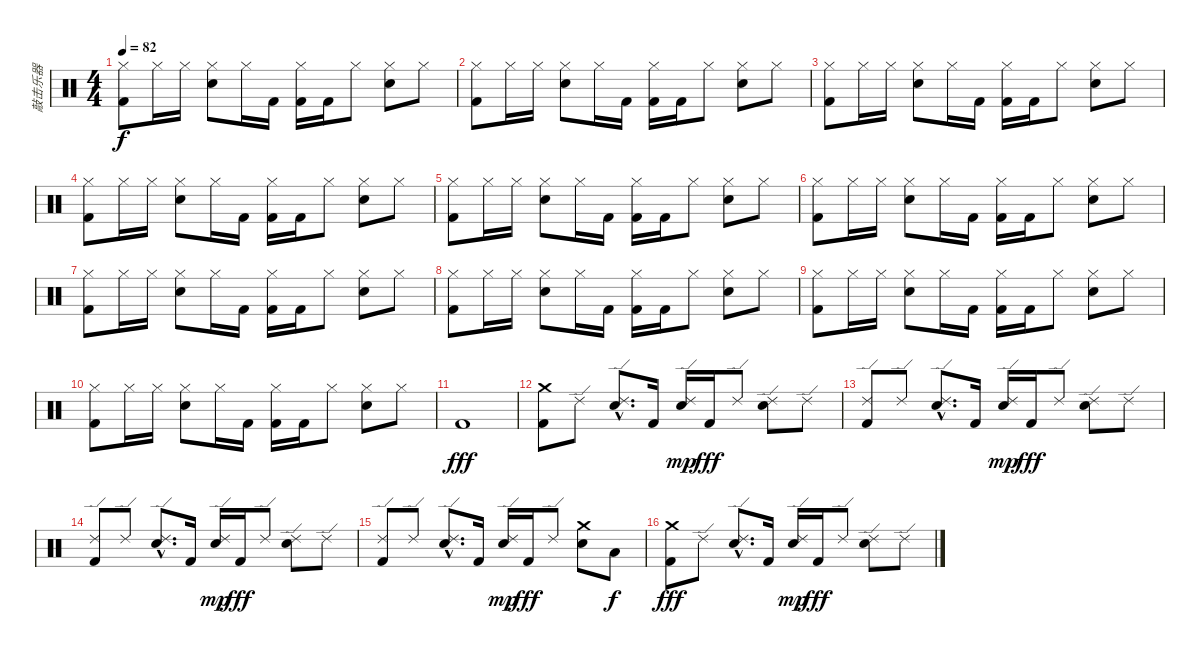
\track ("敲击乐器" "敲击乐器") {instrument percussion}
\staff {score}
\articulation defaults
\ts (4 4)
\tempo 82
\clef neutral
\ks c
("Hi-Hat (closed)" "Kick (hit) 2").8{dy f} "Hi-Hat (closed)".16 "Hi-Hat (closed)".16 ("Hi-Hat (closed)" "Snare (hit) 2").8 "Hi-Hat (closed)".16 "Kick (hit) 2".16 ("Hi-Hat (closed)" "Kick (hit) 2").16 "Kick (hit) 2".16 "Hi-Hat (closed)".8 ("Hi-Hat (closed)" "Snare (hit) 2").8 "Hi-Hat (closed)".8 |
("Hi-Hat (closed)" "Kick (hit) 2").8 "Hi-Hat (closed)".16 "Hi-Hat (closed)".16 ("Hi-Hat (closed)" "Snare (hit) 2").8 "Hi-Hat (closed)".16 "Kick (hit) 2".16 ("Hi-Hat (closed)" "Kick (hit) 2").16 "Kick (hit) 2".16 "Hi-Hat (closed)".8 ("Hi-Hat (closed)" "Snare (hit) 2").8 "Hi-Hat (closed)".8 |
("Hi-Hat (closed)" "Kick (hit) 2").8 "Hi-Hat (closed)".16 "Hi-Hat (closed)".16 ("Hi-Hat (closed)" "Snare (hit) 2").8 "Hi-Hat (closed)".16 "Kick (hit) 2".16 ("Hi-Hat (closed)" "Kick (hit) 2").16 "Kick (hit) 2".16 "Hi-Hat (closed)".8 ("Hi-Hat (closed)" "Snare (hit) 2").8 "Hi-Hat (closed)".8 |
("Hi-Hat (closed)" "Kick (hit) 2").8 "Hi-Hat (closed)".16 "Hi-Hat (closed)".16 ("Hi-Hat (closed)" "Snare (hit) 2").8 "Hi-Hat (closed)".16 "Kick (hit) 2".16 ("Hi-Hat (closed)" "Kick (hit) 2").16 "Kick (hit) 2".16 "Hi-Hat (closed)".8 ("Hi-Hat (closed)" "Snare (hit) 2").8 "Hi-Hat (closed)".8 |
("Hi-Hat (closed)" "Kick (hit) 2").8 "Hi-Hat (closed)".16 "Hi-Hat (closed)".16 ("Hi-Hat (closed)" "Snare (hit) 2").8 "Hi-Hat (closed)".16 "Kick (hit) 2".16 ("Hi-Hat (closed)" "Kick (hit) 2").16 "Kick (hit) 2".16 "Hi-Hat (closed)".8 ("Hi-Hat (closed)" "Snare (hit) 2").8 "Hi-Hat (closed)".8 |
("Hi-Hat (closed)" "Kick (hit) 2").8 "Hi-Hat (closed)".16 "Hi-Hat (closed)".16 ("Hi-Hat (closed)" "Snare (hit) 2").8 "Hi-Hat (closed)".16 "Kick (hit) 2".16 ("Hi-Hat (closed)" "Kick (hit) 2").16 "Kick (hit) 2".16 "Hi-Hat (closed)".8 ("Hi-Hat (closed)" "Snare (hit) 2").8 "Hi-Hat (closed)".8 |
("Hi-Hat (closed)" "Kick (hit) 2").8 "Hi-Hat (closed)".16 "Hi-Hat (closed)".16 ("Hi-Hat (closed)" "Snare (hit) 2").8 "Hi-Hat (closed)".16 "Kick (hit) 2".16 ("Hi-Hat (closed)" "Kick (hit) 2").16 "Kick (hit) 2".16 "Hi-Hat (closed)".8 ("Hi-Hat (closed)" "Snare (hit) 2").8 "Hi-Hat (closed)".8 |
("Hi-Hat (closed)" "Kick (hit) 2").8 "Hi-Hat (closed)".16 "Hi-Hat (closed)".16 ("Hi-Hat (closed)" "Snare (hit) 2").8 "Hi-Hat (closed)".16 "Kick (hit) 2".16 ("Hi-Hat (closed)" "Kick (hit) 2").16 "Kick (hit) 2".16 "Hi-Hat (closed)".8 ("Hi-Hat (closed)" "Snare (hit) 2").8 "Hi-Hat (closed)".8 |
("Hi-Hat (closed)" "Kick (hit) 2").8 "Hi-Hat (closed)".16 "Hi-Hat (closed)".16 ("Hi-Hat (closed)" "Snare (hit) 2").8 "Hi-Hat (closed)".16 "Kick (hit) 2".16 ("Hi-Hat (closed)" "Kick (hit) 2").16 "Kick (hit) 2".16 "Hi-Hat (closed)".8 ("Hi-Hat (closed)" "Snare (hit) 2").8 "Hi-Hat (closed)".8 |
("Hi-Hat (closed)" "Kick (hit) 2").8 "Hi-Hat (closed)".16 "Hi-Hat (closed)".16 ("Hi-Hat (closed)" "Snare (hit) 2").8 "Hi-Hat (closed)".16 "Kick (hit) 2".16 ("Hi-Hat (closed)" "Kick (hit) 2").16 "Kick (hit) 2".16 "Hi-Hat (closed)".8 ("Hi-Hat (closed)" "Snare (hit) 2").8 "Hi-Hat (closed)".8 |
"Kick (hit) 2".1{dy fff} |
("Crash medium (hit)" "Kick (hit) 2").8 "Ride (edge) 2".8 ("Ride (edge) 2"{hac} "Snare (hit) 2"{hac}).8{d} "Kick (hit) 2".16 ("Ride (edge) 2" "Snare (hit) 2").16{dy mp} "Kick (hit) 2".16{dy fff} "Ride (edge) 2".8 ("Ride (edge) 2" "Snare (hit) 2").8 "Ride (edge) 2".8 |
("Ride (edge) 2" "Kick (hit) 2").8 "Ride (edge) 2".8 ("Ride (edge) 2"{hac} "Snare (hit) 2"{hac}).8{d} "Kick (hit) 2".16 ("Ride (edge) 2" "Snare (hit) 2").16{dy mp} "Kick (hit) 2".16{dy fff} "Ride (edge) 2".8 ("Ride (edge) 2" "Snare (hit) 2").8 "Ride (edge) 2".8 |
("Ride (edge) 2" "Kick (hit) 2").8 "Ride (edge) 2".8 ("Ride (edge) 2"{hac} "Snare (hit) 2"{hac}).8{d} "Kick (hit) 2".16 ("Ride (edge) 2" "Snare (hit) 2").16{dy mp} "Kick (hit) 2".16{dy fff} "Ride (edge) 2".8 ("Ride (edge) 2" "Snare (hit) 2").8 "Ride (edge) 2".8 |
("Ride (edge) 2" "Kick (hit) 2").8 "Ride (edge) 2".8 ("Ride (edge) 2"{hac} "Snare (hit) 2"{hac}).8{d} "Kick (hit) 2".16 ("Ride (edge) 2" "Snare (hit) 2").16{dy mp} "Kick (hit) 2".16{dy fff} "Ride (edge) 2".8 ("Crash medium (hit)" "Snare (hit) 2").8 "Low Tom (hit)".8{dy f} |
("Crash medium (hit)" "Kick (hit) 2").8{dy fff} "Ride (edge) 2".8 ("Ride (edge) 2"{hac} "Snare (hit) 2"{hac}).8{d} "Kick (hit) 2".16 ("Ride (edge) 2" "Snare (hit) 2").16{dy mp} "Kick (hit) 2".16{dy fff} "Ride (edge) 2".8 ("Ride (edge) 2" "Snare (hit) 2").8 "Ride (edge) 2".8
